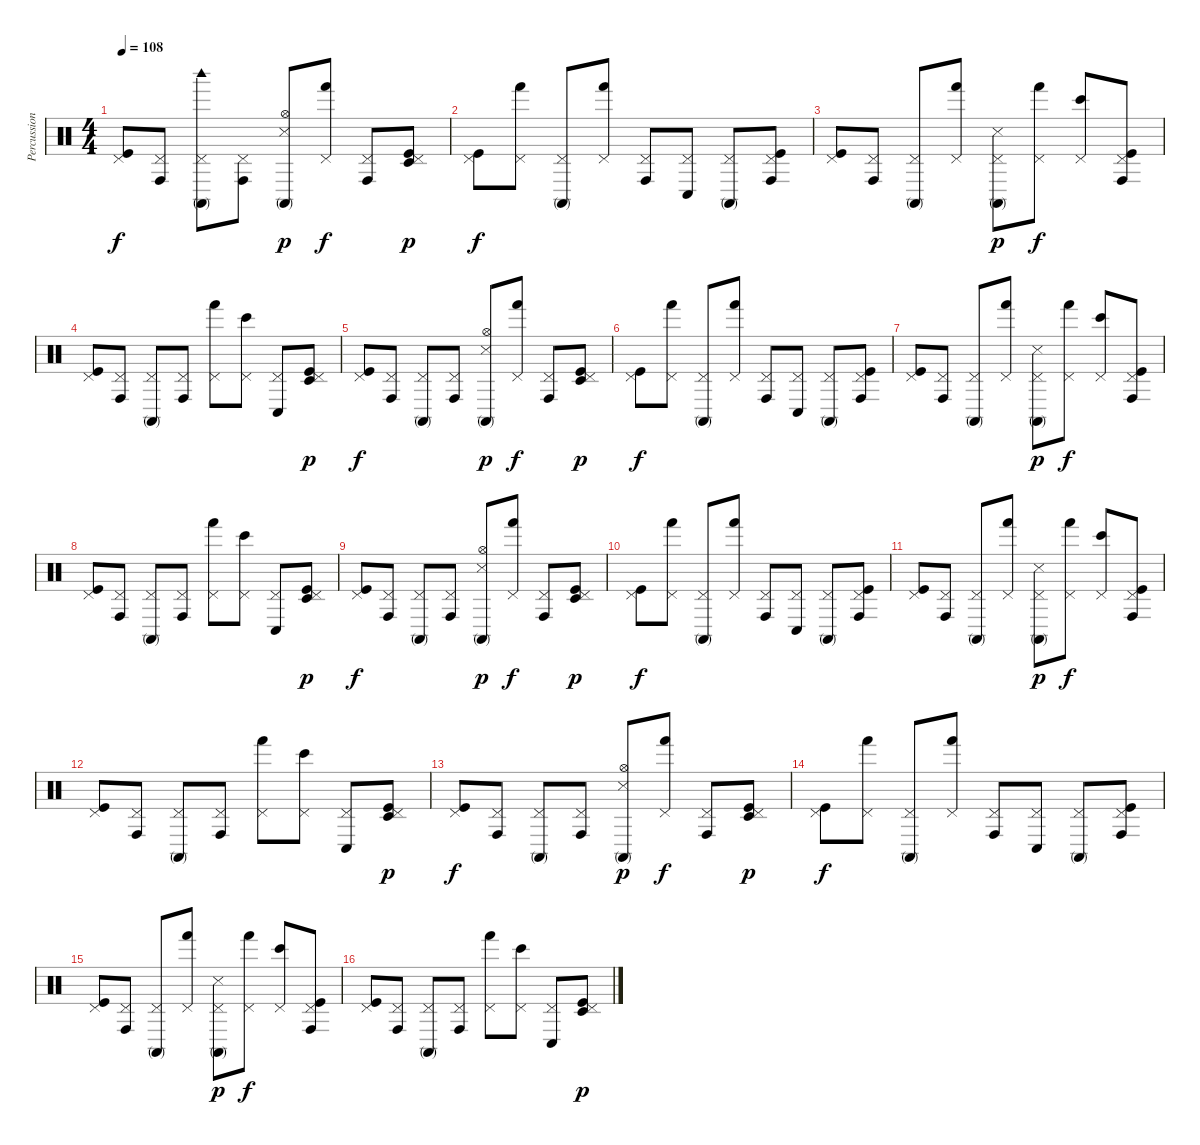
\track ("Percussions" "Percussion") {instrument percussion}
\staff {score}
\articulation defaults
\ts (4 4)
\tempo 108
\clef neutral
\ks c
("Pedal Hi-Hat (hit)" "Kick (hit)").8{dy f} ("Pedal Hi-Hat (hit)" "Conga high (hit)").8 ("Pedal Hi-Hat (hit)" "Conga high (mute)" "Woodblock high (hit)").8 ("Pedal Hi-Hat (hit)" "Conga high (hit)").8 ("Hi-Hat (open)" "Snare (side stick) 3" "Conga high (mute)").8{dy p} ("Pedal Hi-Hat (hit)" "Hand (hit)").8{dy f} ("Pedal Hi-Hat (hit)" "Conga high (hit)").8 ("Pedal Hi-Hat (hit)" "Kick (hit)" "Timbale low (hit)").8{dy p} |
("Pedal Hi-Hat (hit)" "Kick (hit)").8{dy f} ("Pedal Hi-Hat (hit)" "Hand (hit)").8 ("Pedal Hi-Hat (hit)" "Conga high (mute)").8 ("Pedal Hi-Hat (hit)" "Hand (hit)").8 ("Pedal Hi-Hat (hit)" "Conga high (hit)").8 ("Pedal Hi-Hat (hit)" "Conga low (hit)").8 ("Pedal Hi-Hat (hit)" "Conga high (mute)").8 ("Pedal Hi-Hat (hit)" "Kick (hit)" "Conga high (hit)").8 |
("Pedal Hi-Hat (hit)" "Kick (hit)").8 ("Pedal Hi-Hat (hit)" "Conga high (hit)").8 ("Pedal Hi-Hat (hit)" "Conga high (mute)").8 ("Pedal Hi-Hat (hit)" "Hand (hit)").8 ("Pedal Hi-Hat (hit)" "Conga high (mute)" "Snare (side stick) 3").8{dy p} ("Pedal Hi-Hat (hit)" "Hand (hit)").8{dy f} ("Pedal Hi-Hat (hit)" "Bongo High (hit)").8 ("Pedal Hi-Hat (hit)" "Conga high (hit)" "Kick (hit)").8 |
("Pedal Hi-Hat (hit)" "Kick (hit)").8 ("Pedal Hi-Hat (hit)" "Conga high (hit)").8 ("Pedal Hi-Hat (hit)" "Conga high (mute)").8 ("Pedal Hi-Hat (hit)" "Conga high (hit)").8 ("Pedal Hi-Hat (hit)" "Hand (hit)").8 ("Pedal Hi-Hat (hit)" "Bongo High (hit)").8 ("Pedal Hi-Hat (hit)" "Conga low (hit)").8 ("Pedal Hi-Hat (hit)" "Kick (hit)" "Timbale low (hit)").8{dy p} |
("Pedal Hi-Hat (hit)" "Kick (hit)").8{dy f} ("Pedal Hi-Hat (hit)" "Conga high (hit)").8 ("Pedal Hi-Hat (hit)" "Conga high (mute)").8 ("Pedal Hi-Hat (hit)" "Conga high (hit)").8 ("Hi-Hat (open)" "Snare (side stick) 3" "Conga high (mute)").8{dy p} ("Pedal Hi-Hat (hit)" "Hand (hit)").8{dy f} ("Pedal Hi-Hat (hit)" "Conga high (hit)").8 ("Pedal Hi-Hat (hit)" "Kick (hit)" "Timbale low (hit)").8{dy p} |
("Pedal Hi-Hat (hit)" "Kick (hit)").8{dy f} ("Pedal Hi-Hat (hit)" "Hand (hit)").8 ("Pedal Hi-Hat (hit)" "Conga high (mute)").8 ("Pedal Hi-Hat (hit)" "Hand (hit)").8 ("Pedal Hi-Hat (hit)" "Conga high (hit)").8 ("Pedal Hi-Hat (hit)" "Conga low (hit)").8 ("Pedal Hi-Hat (hit)" "Conga high (mute)").8 ("Pedal Hi-Hat (hit)" "Kick (hit)" "Conga high (hit)").8 |
("Pedal Hi-Hat (hit)" "Kick (hit)").8 ("Pedal Hi-Hat (hit)" "Conga high (hit)").8 ("Pedal Hi-Hat (hit)" "Conga high (mute)").8 ("Pedal Hi-Hat (hit)" "Hand (hit)").8 ("Pedal Hi-Hat (hit)" "Conga high (mute)" "Snare (side stick) 3").8{dy p} ("Pedal Hi-Hat (hit)" "Hand (hit)").8{dy f} ("Pedal Hi-Hat (hit)" "Bongo High (hit)").8 ("Pedal Hi-Hat (hit)" "Conga high (hit)" "Kick (hit)").8 |
("Pedal Hi-Hat (hit)" "Kick (hit)").8 ("Pedal Hi-Hat (hit)" "Conga high (hit)").8 ("Pedal Hi-Hat (hit)" "Conga high (mute)").8 ("Pedal Hi-Hat (hit)" "Conga high (hit)").8 ("Pedal Hi-Hat (hit)" "Hand (hit)").8 ("Pedal Hi-Hat (hit)" "Bongo High (hit)").8 ("Pedal Hi-Hat (hit)" "Conga low (hit)").8 ("Pedal Hi-Hat (hit)" "Kick (hit)" "Timbale low (hit)").8{dy p} |
("Pedal Hi-Hat (hit)" "Kick (hit)").8{dy f} ("Pedal Hi-Hat (hit)" "Conga high (hit)").8 ("Pedal Hi-Hat (hit)" "Conga high (mute)").8 ("Pedal Hi-Hat (hit)" "Conga high (hit)").8 ("Hi-Hat (open)" "Snare (side stick) 3" "Conga high (mute)").8{dy p} ("Pedal Hi-Hat (hit)" "Hand (hit)").8{dy f} ("Pedal Hi-Hat (hit)" "Conga high (hit)").8 ("Pedal Hi-Hat (hit)" "Kick (hit)" "Timbale low (hit)").8{dy p} |
("Pedal Hi-Hat (hit)" "Kick (hit)").8{dy f} ("Pedal Hi-Hat (hit)" "Hand (hit)").8 ("Pedal Hi-Hat (hit)" "Conga high (mute)").8 ("Pedal Hi-Hat (hit)" "Hand (hit)").8 ("Pedal Hi-Hat (hit)" "Conga high (hit)").8 ("Pedal Hi-Hat (hit)" "Conga low (hit)").8 ("Pedal Hi-Hat (hit)" "Conga high (mute)").8 ("Pedal Hi-Hat (hit)" "Kick (hit)" "Conga high (hit)").8 |
("Pedal Hi-Hat (hit)" "Kick (hit)").8 ("Pedal Hi-Hat (hit)" "Conga high (hit)").8 ("Pedal Hi-Hat (hit)" "Conga high (mute)").8 ("Pedal Hi-Hat (hit)" "Hand (hit)").8 ("Pedal Hi-Hat (hit)" "Conga high (mute)" "Snare (side stick) 3").8{dy p} ("Pedal Hi-Hat (hit)" "Hand (hit)").8{dy f} ("Pedal Hi-Hat (hit)" "Bongo High (hit)").8 ("Pedal Hi-Hat (hit)" "Conga high (hit)" "Kick (hit)").8 |
("Pedal Hi-Hat (hit)" "Kick (hit)").8 ("Pedal Hi-Hat (hit)" "Conga high (hit)").8 ("Pedal Hi-Hat (hit)" "Conga high (mute)").8 ("Pedal Hi-Hat (hit)" "Conga high (hit)").8 ("Pedal Hi-Hat (hit)" "Hand (hit)").8 ("Pedal Hi-Hat (hit)" "Bongo High (hit)").8 ("Pedal Hi-Hat (hit)" "Conga low (hit)").8 ("Pedal Hi-Hat (hit)" "Kick (hit)" "Timbale low (hit)").8{dy p} |
("Pedal Hi-Hat (hit)" "Kick (hit)").8{dy f} ("Pedal Hi-Hat (hit)" "Conga high (hit)").8 ("Pedal Hi-Hat (hit)" "Conga high (mute)").8 ("Pedal Hi-Hat (hit)" "Conga high (hit)").8 ("Hi-Hat (open)" "Snare (side stick) 3" "Conga high (mute)").8{dy p} ("Pedal Hi-Hat (hit)" "Hand (hit)").8{dy f} ("Pedal Hi-Hat (hit)" "Conga high (hit)").8 ("Pedal Hi-Hat (hit)" "Kick (hit)" "Timbale low (hit)").8{dy p} |
("Pedal Hi-Hat (hit)" "Kick (hit)").8{dy f} ("Pedal Hi-Hat (hit)" "Hand (hit)").8 ("Pedal Hi-Hat (hit)" "Conga high (mute)").8 ("Pedal Hi-Hat (hit)" "Hand (hit)").8 ("Pedal Hi-Hat (hit)" "Conga high (hit)").8 ("Pedal Hi-Hat (hit)" "Conga low (hit)").8 ("Pedal Hi-Hat (hit)" "Conga high (mute)").8 ("Pedal Hi-Hat (hit)" "Kick (hit)" "Conga high (hit)").8 |
("Pedal Hi-Hat (hit)" "Kick (hit)").8 ("Pedal Hi-Hat (hit)" "Conga high (hit)").8 ("Pedal Hi-Hat (hit)" "Conga high (mute)").8 ("Pedal Hi-Hat (hit)" "Hand (hit)").8 ("Pedal Hi-Hat (hit)" "Conga high (mute)" "Snare (side stick) 3").8{dy p} ("Pedal Hi-Hat (hit)" "Hand (hit)").8{dy f} ("Pedal Hi-Hat (hit)" "Bongo High (hit)").8 ("Pedal Hi-Hat (hit)" "Conga high (hit)" "Kick (hit)").8 |
("Pedal Hi-Hat (hit)" "Kick (hit)").8 ("Pedal Hi-Hat (hit)" "Conga high (hit)").8 ("Pedal Hi-Hat (hit)" "Conga high (mute)").8 ("Pedal Hi-Hat (hit)" "Conga high (hit)").8 ("Pedal Hi-Hat (hit)" "Hand (hit)").8 ("Pedal Hi-Hat (hit)" "Bongo High (hit)").8 ("Pedal Hi-Hat (hit)" "Conga low (hit)").8 ("Pedal Hi-Hat (hit)" "Kick (hit)" "Timbale low (hit)").8{dy p}
